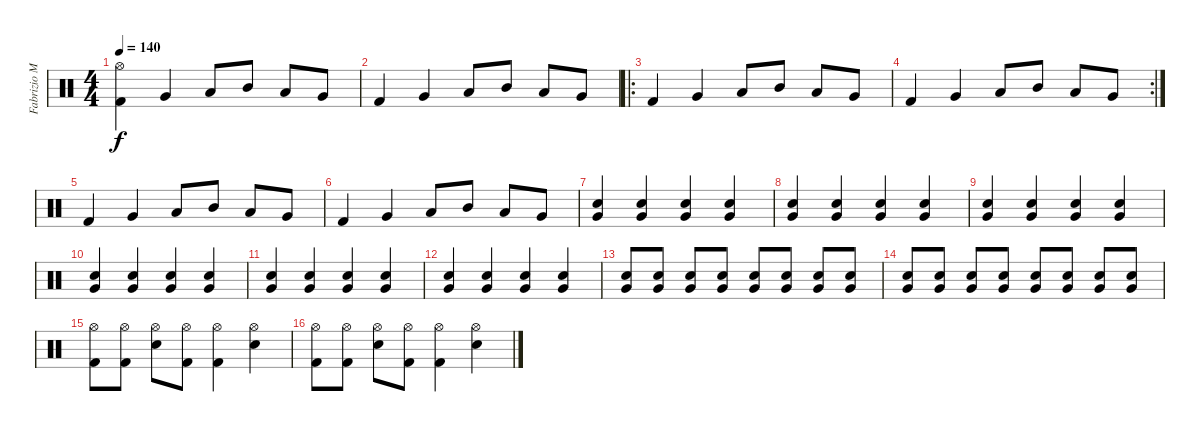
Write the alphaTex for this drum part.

\track ("Fabrizio Moretti" "Fabrizio M") {instrument percussion}
\staff {score}
\articulation defaults
\ts (4 4)
\tempo 140
\clef neutral
\ks c
("Kick (hit) 2" "Hi-Hat (open)").4{dy f} "Very Low Tom (hit)".4 "Low Tom (hit)".8 "Mid Tom (hit)".8 "Low Tom (hit)".8 "Very Low Tom (hit)".8 |
"Kick (hit) 2".4 "Very Low Tom (hit)".4 "Low Tom (hit)".8 "Mid Tom (hit)".8 "Low Tom (hit)".8 "Very Low Tom (hit)".8 |
\ro "Kick (hit) 2".4 "Very Low Tom (hit)".4 "Low Tom (hit)".8 "Mid Tom (hit)".8 "Low Tom (hit)".8 "Very Low Tom (hit)".8
|
\rc 2 "Kick (hit) 2".4 "Very Low Tom (hit)".4 "Low Tom (hit)".8 "Mid Tom (hit)".8 "Low Tom (hit)".8 "Very Low Tom (hit)".8
|
"Kick (hit) 2".4 "Very Low Tom (hit)".4 "Low Tom (hit)".8 "Mid Tom (hit)".8 "Low Tom (hit)".8 "Very Low Tom (hit)".8 |
"Kick (hit) 2".4 "Very Low Tom (hit)".4 "Low Tom (hit)".8 "Mid Tom (hit)".8 "Low Tom (hit)".8 "Very Low Tom (hit)".8 |
("Very Low Tom (hit)" "Electric Snare (hit)").4 ("Very Low Tom (hit)" "Electric Snare (hit)").4 ("Very Low Tom (hit)" "Electric Snare (hit)").4 ("Very Low Tom (hit)" "Electric Snare (hit)").4 |
("Very Low Tom (hit)" "Electric Snare (hit)").4 ("Very Low Tom (hit)" "Electric Snare (hit)").4 ("Very Low Tom (hit)" "Electric Snare (hit)").4 ("Very Low Tom (hit)" "Electric Snare (hit)").4 |
("Very Low Tom (hit)" "Electric Snare (hit)").4 ("Very Low Tom (hit)" "Electric Snare (hit)").4 ("Very Low Tom (hit)" "Electric Snare (hit)").4 ("Very Low Tom (hit)" "Electric Snare (hit)").4 |
("Very Low Tom (hit)" "Electric Snare (hit)").4 ("Very Low Tom (hit)" "Electric Snare (hit)").4 ("Very Low Tom (hit)" "Electric Snare (hit)").4 ("Very Low Tom (hit)" "Electric Snare (hit)").4 |
("Very Low Tom (hit)" "Electric Snare (hit)").4 ("Very Low Tom (hit)" "Electric Snare (hit)").4 ("Very Low Tom (hit)" "Electric Snare (hit)").4 ("Very Low Tom (hit)" "Electric Snare (hit)").4 |
("Very Low Tom (hit)" "Electric Snare (hit)").4 ("Very Low Tom (hit)" "Electric Snare (hit)").4 ("Very Low Tom (hit)" "Electric Snare (hit)").4 ("Very Low Tom (hit)" "Electric Snare (hit)").4 |
("Very Low Tom (hit)" "Electric Snare (hit)").8 ("Very Low Tom (hit)" "Electric Snare (hit)").8 ("Very Low Tom (hit)" "Electric Snare (hit)").8 ("Very Low Tom (hit)" "Electric Snare (hit)").8 ("Very Low Tom (hit)" "Electric Snare (hit)").8 ("Very Low Tom (hit)" "Electric Snare (hit)").8 ("Very Low Tom (hit)" "Electric Snare (hit)").8 ("Very Low Tom (hit)" "Electric Snare (hit)").8 |
("Very Low Tom (hit)" "Electric Snare (hit)").8 ("Very Low Tom (hit)" "Electric Snare (hit)").8 ("Very Low Tom (hit)" "Electric Snare (hit)").8 ("Very Low Tom (hit)" "Electric Snare (hit)").8 ("Very Low Tom (hit)" "Electric Snare (hit)").8 ("Very Low Tom (hit)" "Electric Snare (hit)").8 ("Very Low Tom (hit)" "Electric Snare (hit)").8 ("Very Low Tom (hit)" "Electric Snare (hit)").8 |
("Kick (hit) 2" "Hi-Hat (open)").8 ("Kick (hit) 2" "Hi-Hat (open)").8 ("Electric Snare (hit)" "Hi-Hat (open)").8 ("Kick (hit) 2" "Hi-Hat (open)").8 ("Kick (hit) 2" "Hi-Hat (open)").4 ("Electric Snare (hit)" "Hi-Hat (open)").4 |
("Kick (hit) 2" "Hi-Hat (open)").8 ("Kick (hit) 2" "Hi-Hat (open)").8 ("Electric Snare (hit)" "Hi-Hat (open)").8 ("Kick (hit) 2" "Hi-Hat (open)").8 ("Kick (hit) 2" "Hi-Hat (open)").4 ("Electric Snare (hit)" "Hi-Hat (open)").4
